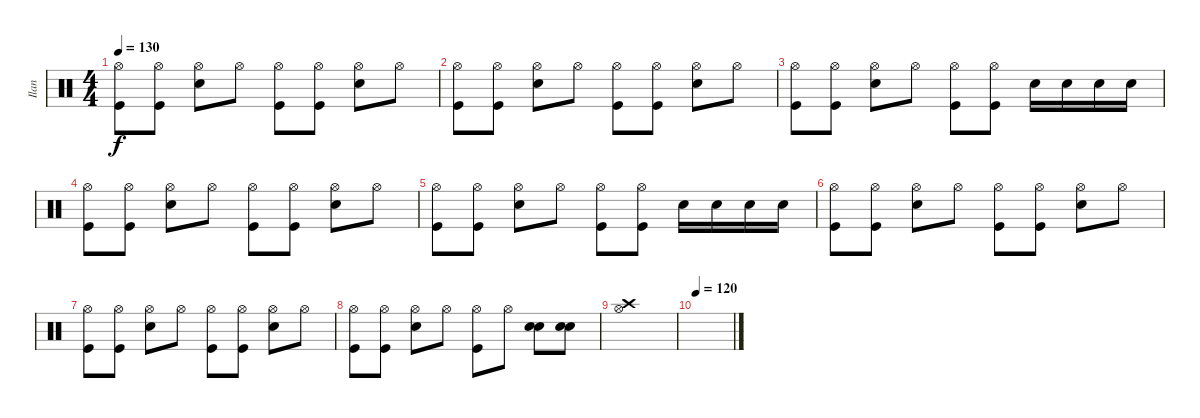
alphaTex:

\track ("Ilan" "Ilan") {instrument percussion}
\staff {score}
\articulation defaults
\ts (4 4)
\tempo 130
\clef neutral
\ks c
("Hi-Hat (open)" "Kick (hit)").8{dy f} ("Hi-Hat (open)" "Kick (hit)").8 ("Hi-Hat (open)" "Electric Snare (hit)").8 "Hi-Hat (open)".8 ("Hi-Hat (open)" "Kick (hit)").8 ("Hi-Hat (open)" "Kick (hit)").8 ("Hi-Hat (open)" "Electric Snare (hit)").8 "Hi-Hat (open)".8 |
("Hi-Hat (open)" "Kick (hit)").8 ("Hi-Hat (open)" "Kick (hit)").8 ("Hi-Hat (open)" "Electric Snare (hit)").8 "Hi-Hat (open)".8 ("Hi-Hat (open)" "Kick (hit)").8 ("Hi-Hat (open)" "Kick (hit)").8 ("Hi-Hat (open)" "Electric Snare (hit)").8 "Hi-Hat (open)".8 |
("Hi-Hat (open)" "Kick (hit)").8 ("Hi-Hat (open)" "Kick (hit)").8 ("Hi-Hat (open)" "Electric Snare (hit)").8 "Hi-Hat (open)".8 ("Hi-Hat (open)" "Kick (hit)").8 ("Hi-Hat (open)" "Kick (hit)").8 "Electric Snare (hit)".16 "Electric Snare (hit)".16 "Electric Snare (hit)".16 "Electric Snare (hit)".16 |
("Hi-Hat (open)" "Kick (hit)").8 ("Hi-Hat (open)" "Kick (hit)").8 ("Hi-Hat (open)" "Electric Snare (hit)").8 "Hi-Hat (open)".8 ("Hi-Hat (open)" "Kick (hit)").8 ("Hi-Hat (open)" "Kick (hit)").8 ("Hi-Hat (open)" "Electric Snare (hit)").8 "Hi-Hat (open)".8 |
("Hi-Hat (open)" "Kick (hit)").8 ("Hi-Hat (open)" "Kick (hit)").8 ("Hi-Hat (open)" "Electric Snare (hit)").8 "Hi-Hat (open)".8 ("Hi-Hat (open)" "Kick (hit)").8 ("Hi-Hat (open)" "Kick (hit)").8 "Electric Snare (hit)".16 "Electric Snare (hit)".16 "Electric Snare (hit)".16 "Electric Snare (hit)".16 |
("Hi-Hat (open)" "Kick (hit)").8 ("Hi-Hat (open)" "Kick (hit)").8 ("Hi-Hat (open)" "Electric Snare (hit)").8 "Hi-Hat (open)".8 ("Hi-Hat (open)" "Kick (hit)").8 ("Hi-Hat (open)" "Kick (hit)").8 ("Hi-Hat (open)" "Electric Snare (hit)").8 "Hi-Hat (open)".8 |
("Hi-Hat (open)" "Kick (hit)").8 ("Hi-Hat (open)" "Kick (hit)").8 ("Hi-Hat (open)" "Electric Snare (hit)").8 "Hi-Hat (open)".8 ("Hi-Hat (open)" "Kick (hit)").8 ("Hi-Hat (open)" "Kick (hit)").8 ("Hi-Hat (open)" "Electric Snare (hit)").8 "Hi-Hat (open)".8 |
("Hi-Hat (open)" "Kick (hit)").8 ("Hi-Hat (open)" "Kick (hit)").8 ("Hi-Hat (open)" "Electric Snare (hit)").8 "Hi-Hat (open)".8 ("Hi-Hat (open)" "Kick (hit)").8 "Hi-Hat (open)".8 ("Electric Snare (hit)" "Electric Snare (hit)").8 ("Electric Snare (hit)" "Electric Snare (hit)").8 |
("Hi-Hat (open)" "Crash high (hit)").1 |
\tempo 120
